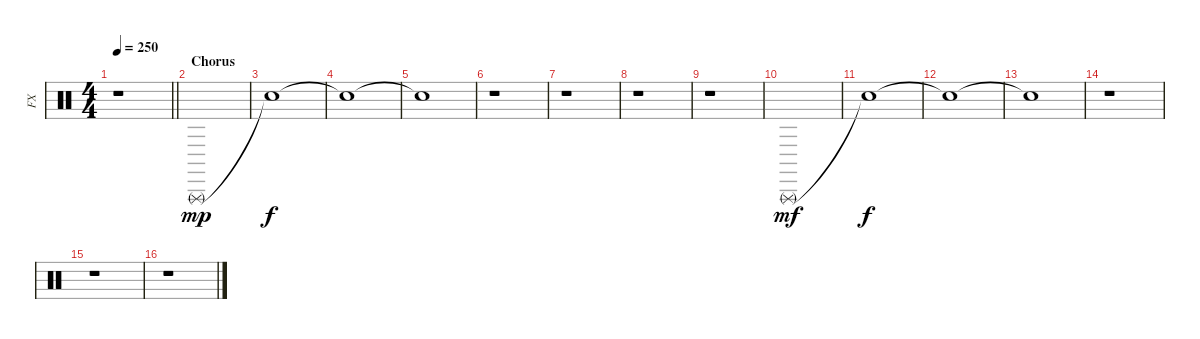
\track ("FX" "FX") {instrument percussion}
\staff {score}
\articulation defaults
\ts (4 4)
\tempo 250
\clef neutral
\barLineRight lightlight
\ks c
r.1{dy f} |
\section ("" "Chorus")
"Triangle (rnute)".1{dy mp} |
"Snare (hit)"{t}.1{dy f} |
"Snare (hit)"{t}.1 |
"Snare (hit)"{t}.1 |
r.1 |
r.1 |
r.1 |
r.1 |
"Triangle (rnute)".1{dy mf} |
"Snare (hit)"{t}.1{dy f} |
"Snare (hit)"{t}.1 |
"Snare (hit)"{t}.1 |
r.1 |
r.1 |
r.1
